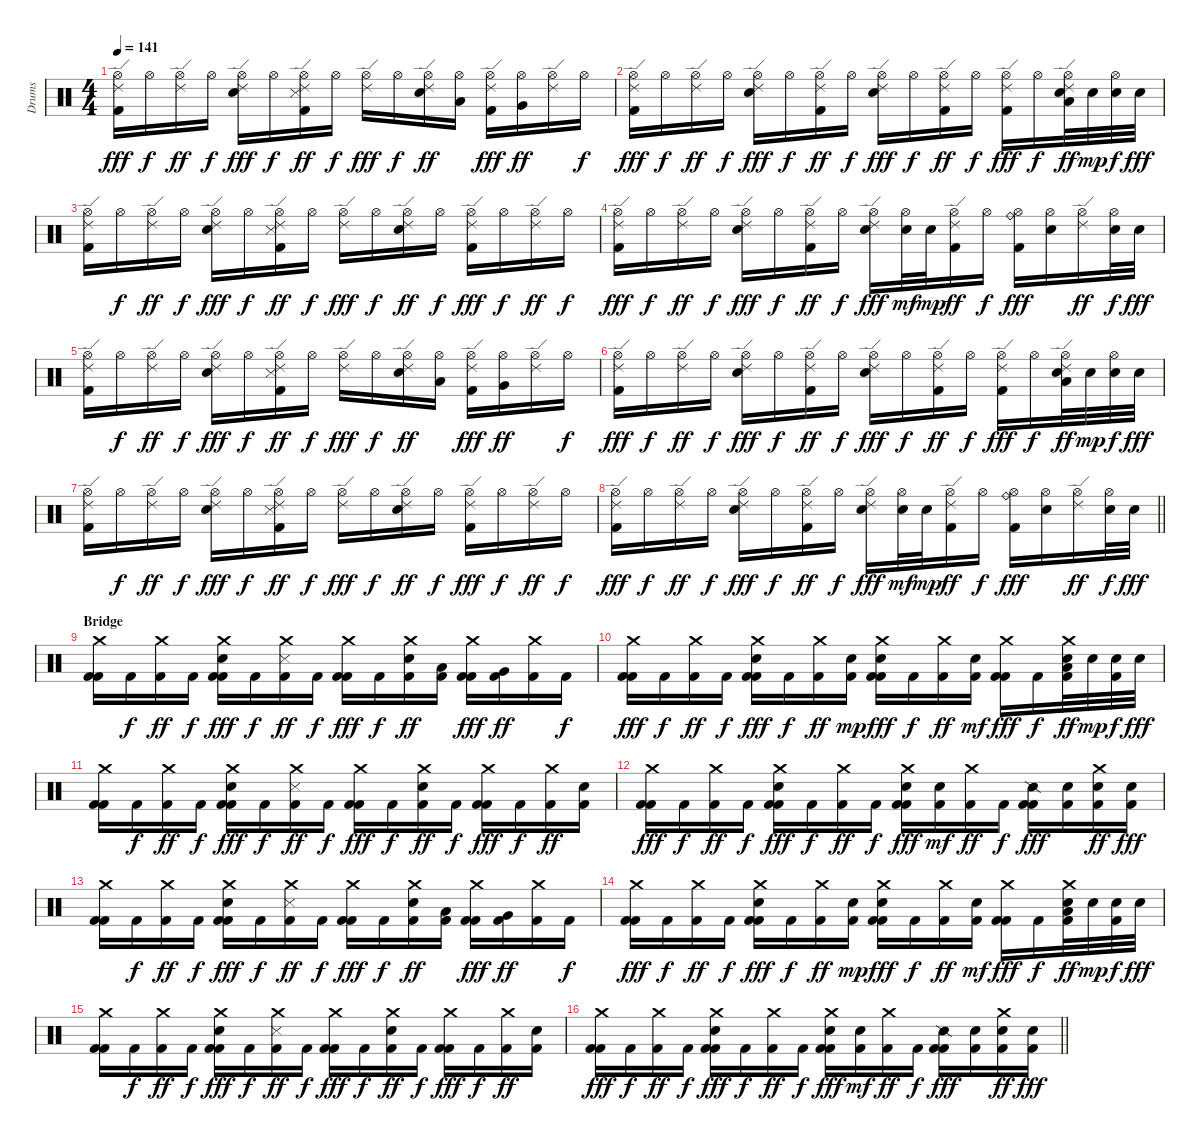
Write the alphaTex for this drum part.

\track ("Drums" "Drums") {instrument percussion}
\staff {score}
\articulation defaults
\ts (4 4)
\tempo 141
\clef neutral
\ks c
("Kick (hit) 2" "Hi-Hat (open)" "Ride (edge) 2").16{dy fff} "Hi-Hat (open)".16{dy f} ("Hi-Hat (open)" "Ride (edge) 2").16{dy ff} "Hi-Hat (open)".16{dy f} ("Snare (hit) 2" "Hi-Hat (open)" "Ride (edge) 2").16{dy fff} "Hi-Hat (open)".16{dy f} ("Kick (hit) 2" "Snare (side stick) 3" "Hi-Hat (open)" "Ride (edge) 2").16{dy ff} "Hi-Hat (open)".16{dy f} ("Hi-Hat (open)" "Ride (edge) 2").16{dy fff} "Hi-Hat (open)".16{dy f} ("Snare (hit) 2" "Hi-Hat (open)" "Ride (edge) 2").16{dy ff} ("Hi-Hat (open)" "Low Floor Tom (hit)").16 ("Kick (hit) 2" "Hi-Hat (open)" "Ride (edge) 2").16{dy fff} ("Hi-Hat (open)" "Very Low Tom (hit)").16{dy ff} ("Hi-Hat (open)" "Ride (edge) 2").16 "Hi-Hat (open)".16{dy f} |
("Kick (hit) 2" "Hi-Hat (open)" "Ride (edge) 2").16{dy fff} "Hi-Hat (open)".16{dy f} ("Hi-Hat (open)" "Ride (edge) 2").16{dy ff} "Hi-Hat (open)".16{dy f} ("Snare (hit) 2" "Hi-Hat (open)" "Ride (edge) 2").16{dy fff} "Hi-Hat (open)".16{dy f} ("Kick (hit) 2" "Hi-Hat (open)" "Ride (edge) 2").16{dy ff} "Hi-Hat (open)".16{dy f} ("Snare (hit) 2" "Hi-Hat (open)" "Ride (edge) 2").16{dy fff} "Hi-Hat (open)".16{dy f} ("Kick (hit) 2" "Hi-Hat (open)" "Ride (edge) 2").16{dy ff} "Hi-Hat (open)".16{dy f} ("Kick (hit) 2" "Hi-Hat (open)" "Ride (edge) 2").16{dy fff} "Hi-Hat (open)".16{dy f} ("Snare (hit) 2" "Hi-Hat (open)" "Ride (edge) 2" "Low Tom (hit)").32{dy ff} "Snare (hit) 2".32{dy mp} ("Snare (hit) 2" "Hi-Hat (open)").32{dy f} "Snare (hit) 2".32{dy fff} |
("Kick (hit) 2" "Hi-Hat (open)" "Ride (edge) 2").16 "Hi-Hat (open)".16{dy f} ("Hi-Hat (open)" "Ride (edge) 2").16{dy ff} "Hi-Hat (open)".16{dy f} ("Snare (hit) 2" "Hi-Hat (open)" "Ride (edge) 2").16{dy fff} "Hi-Hat (open)".16{dy f} ("Kick (hit) 2" "Snare (side stick) 3" "Hi-Hat (open)" "Ride (edge) 2").16{dy ff} "Hi-Hat (open)".16{dy f} ("Hi-Hat (open)" "Ride (edge) 2").16{dy fff} "Hi-Hat (open)".16{dy f} ("Snare (hit) 2" "Hi-Hat (open)" "Ride (edge) 2").16{dy ff} "Hi-Hat (open)".16{dy f} ("Kick (hit) 2" "Hi-Hat (open)" "Ride (edge) 2").16{dy fff} "Hi-Hat (open)".16{dy f} ("Hi-Hat (open)" "Ride (edge) 2").16{dy ff} "Hi-Hat (open)".16{dy f} |
("Kick (hit) 2" "Hi-Hat (open)" "Ride (edge) 2").16{dy fff} "Hi-Hat (open)".16{dy f} ("Hi-Hat (open)" "Ride (edge) 2").16{dy ff} "Hi-Hat (open)".16{dy f} ("Snare (hit) 2" "Hi-Hat (open)" "Ride (edge) 2").16{dy fff} "Hi-Hat (open)".16{dy f} ("Kick (hit) 2" "Hi-Hat (open)" "Ride (edge) 2").16{dy ff} "Hi-Hat (open)".16{dy f} ("Snare (hit) 2" "Hi-Hat (open)" "Ride (edge) 2").16{dy fff} ("Snare (hit) 2" "Hi-Hat (open)").32{dy mf} "Snare (hit) 2".32{dy mp} ("Kick (hit) 2" "Hi-Hat (open)" "Ride (edge) 2").16{dy ff} "Hi-Hat (open)".16{dy f} ("Kick (hit) 2" "Hi-Hat (open)" "Ride (bell)").16{dy fff} ("Snare (hit) 2" "Hi-Hat (open)").16 ("Hi-Hat (open)" "Ride (edge) 2").16{dy ff} ("Snare (hit) 2" "Hi-Hat (open)").32{dy f} "Snare (hit) 2".32{dy fff} |
("Kick (hit) 2" "Hi-Hat (open)" "Ride (edge) 2").16 "Hi-Hat (open)".16{dy f} ("Hi-Hat (open)" "Ride (edge) 2").16{dy ff} "Hi-Hat (open)".16{dy f} ("Snare (hit) 2" "Hi-Hat (open)" "Ride (edge) 2").16{dy fff} "Hi-Hat (open)".16{dy f} ("Kick (hit) 2" "Snare (side stick) 3" "Hi-Hat (open)" "Ride (edge) 2").16{dy ff} "Hi-Hat (open)".16{dy f} ("Hi-Hat (open)" "Ride (edge) 2").16{dy fff} "Hi-Hat (open)".16{dy f} ("Snare (hit) 2" "Hi-Hat (open)" "Ride (edge) 2").16{dy ff} ("Hi-Hat (open)" "Low Floor Tom (hit)").16 ("Kick (hit) 2" "Hi-Hat (open)" "Ride (edge) 2").16{dy fff} ("Hi-Hat (open)" "Very Low Tom (hit)").16{dy ff} ("Hi-Hat (open)" "Ride (edge) 2").16 "Hi-Hat (open)".16{dy f} |
("Kick (hit) 2" "Hi-Hat (open)" "Ride (edge) 2").16{dy fff} "Hi-Hat (open)".16{dy f} ("Hi-Hat (open)" "Ride (edge) 2").16{dy ff} "Hi-Hat (open)".16{dy f} ("Snare (hit) 2" "Hi-Hat (open)" "Ride (edge) 2").16{dy fff} "Hi-Hat (open)".16{dy f} ("Kick (hit) 2" "Hi-Hat (open)" "Ride (edge) 2").16{dy ff} "Hi-Hat (open)".16{dy f} ("Snare (hit) 2" "Hi-Hat (open)" "Ride (edge) 2").16{dy fff} "Hi-Hat (open)".16{dy f} ("Kick (hit) 2" "Hi-Hat (open)" "Ride (edge) 2").16{dy ff} "Hi-Hat (open)".16{dy f} ("Kick (hit) 2" "Hi-Hat (open)" "Ride (edge) 2").16{dy fff} "Hi-Hat (open)".16{dy f} ("Snare (hit) 2" "Hi-Hat (open)" "Ride (edge) 2" "Low Tom (hit)").32{dy ff} "Snare (hit) 2".32{dy mp} ("Snare (hit) 2" "Hi-Hat (open)").32{dy f} "Snare (hit) 2".32{dy fff} |
("Kick (hit) 2" "Hi-Hat (open)" "Ride (edge) 2").16 "Hi-Hat (open)".16{dy f} ("Hi-Hat (open)" "Ride (edge) 2").16{dy ff} "Hi-Hat (open)".16{dy f} ("Snare (hit) 2" "Hi-Hat (open)" "Ride (edge) 2").16{dy fff} "Hi-Hat (open)".16{dy f} ("Kick (hit) 2" "Snare (side stick) 3" "Hi-Hat (open)" "Ride (edge) 2").16{dy ff} "Hi-Hat (open)".16{dy f} ("Hi-Hat (open)" "Ride (edge) 2").16{dy fff} "Hi-Hat (open)".16{dy f} ("Snare (hit) 2" "Hi-Hat (open)" "Ride (edge) 2").16{dy ff} "Hi-Hat (open)".16{dy f} ("Kick (hit) 2" "Hi-Hat (open)" "Ride (edge) 2").16{dy fff} "Hi-Hat (open)".16{dy f} ("Hi-Hat (open)" "Ride (edge) 2").16{dy ff} "Hi-Hat (open)".16{dy f} |
\barLineRight lightlight
("Kick (hit) 2" "Hi-Hat (open)" "Ride (edge) 2").16{dy fff} "Hi-Hat (open)".16{dy f} ("Hi-Hat (open)" "Ride (edge) 2").16{dy ff} "Hi-Hat (open)".16{dy f} ("Snare (hit) 2" "Hi-Hat (open)" "Ride (edge) 2").16{dy fff} "Hi-Hat (open)".16{dy f} ("Kick (hit) 2" "Hi-Hat (open)" "Ride (edge) 2").16{dy ff} "Hi-Hat (open)".16{dy f} ("Snare (hit) 2" "Hi-Hat (open)" "Ride (edge) 2").16{dy fff} ("Snare (hit) 2" "Hi-Hat (open)").32{dy mf} "Snare (hit) 2".32{dy mp} ("Kick (hit) 2" "Hi-Hat (open)" "Ride (edge) 2").16{dy ff} "Hi-Hat (open)".16{dy f} ("Kick (hit) 2" "Hi-Hat (open)" "Ride (bell)").16{dy fff} ("Snare (hit) 2" "Hi-Hat (open)").16 ("Hi-Hat (open)" "Ride (edge) 2").16{dy ff} ("Snare (hit) 2" "Hi-Hat (open)").32{dy f} "Snare (hit) 2".32{dy fff} |
\section ("" "Bridge")
("Kick (hit) 2" "Kick (hit) 2" "Crash medium (hit)").16 "Kick (hit) 2".16{dy f} ("Kick (hit) 2" "Crash medium (hit)").16{dy ff} "Kick (hit) 2".16{dy f} ("Kick (hit) 2" "Snare (hit) 2" "Kick (hit) 2" "Crash medium (hit)").16{dy fff} "Kick (hit) 2".16{dy f} ("Snare (side stick) 3" "Kick (hit) 2" "Crash medium (hit)").16{dy ff} "Kick (hit) 2".16{dy f} ("Kick (hit) 2" "Kick (hit) 2" "Crash medium (hit)").16{dy fff} "Kick (hit) 2".16{dy f} ("Snare (hit) 2" "Kick (hit) 2" "Crash medium (hit)").16{dy ff} ("Kick (hit) 2" "Low Floor Tom (hit)").16 ("Kick (hit) 2" "Kick (hit) 2" "Crash medium (hit)").16{dy fff} ("Kick (hit) 2" "Very Low Tom (hit)").16{dy ff} ("Kick (hit) 2" "Crash medium (hit)").16 "Kick (hit) 2".16{dy f} |
("Kick (hit) 2" "Kick (hit) 2" "Crash medium (hit)").16{dy fff} "Kick (hit) 2".16{dy f} ("Kick (hit) 2" "Crash medium (hit)").16{dy ff} "Kick (hit) 2".16{dy f} ("Kick (hit) 2" "Snare (hit) 2" "Kick (hit) 2" "Crash medium (hit)").16{dy fff} "Kick (hit) 2".16{dy f} ("Kick (hit) 2" "Crash medium (hit)").16{dy ff} ("Snare (hit) 2" "Kick (hit) 2").16{dy mp} ("Kick (hit) 2" "Snare (hit) 2" "Kick (hit) 2" "Crash medium (hit)").16{dy fff} "Kick (hit) 2".16{dy f} ("Kick (hit) 2" "Crash medium (hit)").16{dy ff} ("Snare (hit) 2" "Kick (hit) 2").16{dy mf} ("Kick (hit) 2" "Kick (hit) 2" "Crash medium (hit)").16{dy fff} "Kick (hit) 2".16{dy f} ("Snare (hit) 2" "Kick (hit) 2" "Low Tom (hit)" "Crash medium (hit)").32{dy ff} "Snare (hit) 2".32{dy mp} ("Snare (hit) 2" "Kick (hit) 2").32{dy f} "Snare (hit) 2".32{dy fff} |
("Kick (hit) 2" "Kick (hit) 2" "Crash medium (hit)").16 "Kick (hit) 2".16{dy f} ("Kick (hit) 2" "Crash medium (hit)").16{dy ff} "Kick (hit) 2".16{dy f} ("Kick (hit) 2" "Snare (hit) 2" "Kick (hit) 2" "Crash medium (hit)").16{dy fff} "Kick (hit) 2".16{dy f} ("Snare (side stick) 3" "Kick (hit) 2" "Crash medium (hit)").16{dy ff} "Kick (hit) 2".16{dy f} ("Kick (hit) 2" "Kick (hit) 2" "Crash medium (hit)").16{dy fff} "Kick (hit) 2".16{dy f} ("Snare (hit) 2" "Kick (hit) 2" "Crash medium (hit)").16{dy ff} "Kick (hit) 2".16{dy f} ("Kick (hit) 2" "Kick (hit) 2" "Crash medium (hit)").16{dy fff} "Kick (hit) 2".16{dy f} ("Kick (hit) 2" "Crash medium (hit)").16{dy ff} ("Snare (hit) 2" "Kick (hit) 2").16 |
("Kick (hit) 2" "Kick (hit) 2" "Crash medium (hit)").16{dy fff} "Kick (hit) 2".16{dy f} ("Kick (hit) 2" "Crash medium (hit)").16{dy ff} "Kick (hit) 2".16{dy f} ("Kick (hit) 2" "Snare (hit) 2" "Kick (hit) 2" "Crash medium (hit)").16{dy fff} "Kick (hit) 2".16{dy f} ("Kick (hit) 2" "Crash medium (hit)").16{dy ff} "Kick (hit) 2".16{dy f} ("Kick (hit) 2" "Snare (hit) 2" "Kick (hit) 2" "Crash medium (hit)").16{dy fff} ("Snare (hit) 2" "Kick (hit) 2").16{dy mf} ("Kick (hit) 2" "Crash medium (hit)").16{dy ff} "Kick (hit) 2".16{dy f} ("Kick (hit) 2" "Kick (hit) 2" "Snare (side stick) 2").16{dy fff} ("Snare (hit) 2" "Kick (hit) 2").16 ("Snare (hit) 2" "Kick (hit) 2" "Crash medium (hit)").16{dy ff} ("Snare (hit) 2" "Kick (hit) 2").16{dy fff} |
("Kick (hit) 2" "Kick (hit) 2" "Crash medium (hit)").16 "Kick (hit) 2".16{dy f} ("Kick (hit) 2" "Crash medium (hit)").16{dy ff} "Kick (hit) 2".16{dy f} ("Kick (hit) 2" "Snare (hit) 2" "Kick (hit) 2" "Crash medium (hit)").16{dy fff} "Kick (hit) 2".16{dy f} ("Snare (side stick) 3" "Kick (hit) 2" "Crash medium (hit)").16{dy ff} "Kick (hit) 2".16{dy f} ("Kick (hit) 2" "Kick (hit) 2" "Crash medium (hit)").16{dy fff} "Kick (hit) 2".16{dy f} ("Snare (hit) 2" "Kick (hit) 2" "Crash medium (hit)").16{dy ff} ("Kick (hit) 2" "Low Floor Tom (hit)").16 ("Kick (hit) 2" "Kick (hit) 2" "Crash medium (hit)").16{dy fff} ("Kick (hit) 2" "Very Low Tom (hit)").16{dy ff} ("Kick (hit) 2" "Crash medium (hit)").16 "Kick (hit) 2".16{dy f} |
("Kick (hit) 2" "Kick (hit) 2" "Crash medium (hit)").16{dy fff} "Kick (hit) 2".16{dy f} ("Kick (hit) 2" "Crash medium (hit)").16{dy ff} "Kick (hit) 2".16{dy f} ("Kick (hit) 2" "Snare (hit) 2" "Kick (hit) 2" "Crash medium (hit)").16{dy fff} "Kick (hit) 2".16{dy f} ("Kick (hit) 2" "Crash medium (hit)").16{dy ff} ("Snare (hit) 2" "Kick (hit) 2").16{dy mp} ("Kick (hit) 2" "Snare (hit) 2" "Kick (hit) 2" "Crash medium (hit)").16{dy fff} "Kick (hit) 2".16{dy f} ("Kick (hit) 2" "Crash medium (hit)").16{dy ff} ("Snare (hit) 2" "Kick (hit) 2").16{dy mf} ("Kick (hit) 2" "Kick (hit) 2" "Crash medium (hit)").16{dy fff} "Kick (hit) 2".16{dy f} ("Snare (hit) 2" "Kick (hit) 2" "Low Tom (hit)" "Crash medium (hit)").32{dy ff} "Snare (hit) 2".32{dy mp} ("Snare (hit) 2" "Kick (hit) 2").32{dy f} "Snare (hit) 2".32{dy fff} |
("Kick (hit) 2" "Kick (hit) 2" "Crash medium (hit)").16 "Kick (hit) 2".16{dy f} ("Kick (hit) 2" "Crash medium (hit)").16{dy ff} "Kick (hit) 2".16{dy f} ("Kick (hit) 2" "Snare (hit) 2" "Kick (hit) 2" "Crash medium (hit)").16{dy fff} "Kick (hit) 2".16{dy f} ("Snare (side stick) 3" "Kick (hit) 2" "Crash medium (hit)").16{dy ff} "Kick (hit) 2".16{dy f} ("Kick (hit) 2" "Kick (hit) 2" "Crash medium (hit)").16{dy fff} "Kick (hit) 2".16{dy f} ("Snare (hit) 2" "Kick (hit) 2" "Crash medium (hit)").16{dy ff} "Kick (hit) 2".16{dy f} ("Kick (hit) 2" "Kick (hit) 2" "Crash medium (hit)").16{dy fff} "Kick (hit) 2".16{dy f} ("Kick (hit) 2" "Crash medium (hit)").16{dy ff} ("Snare (hit) 2" "Kick (hit) 2").16 |
\barLineRight lightlight
("Kick (hit) 2" "Kick (hit) 2" "Crash medium (hit)").16{dy fff} "Kick (hit) 2".16{dy f} ("Kick (hit) 2" "Crash medium (hit)").16{dy ff} "Kick (hit) 2".16{dy f} ("Kick (hit) 2" "Snare (hit) 2" "Kick (hit) 2" "Crash medium (hit)").16{dy fff} "Kick (hit) 2".16{dy f} ("Kick (hit) 2" "Crash medium (hit)").16{dy ff} "Kick (hit) 2".16{dy f} ("Kick (hit) 2" "Snare (hit) 2" "Kick (hit) 2" "Crash medium (hit)").16{dy fff} ("Snare (hit) 2" "Kick (hit) 2").16{dy mf} ("Kick (hit) 2" "Crash medium (hit)").16{dy ff} "Kick (hit) 2".16{dy f} ("Kick (hit) 2" "Kick (hit) 2" "Snare (side stick) 2").16{dy fff} ("Snare (hit) 2" "Kick (hit) 2").16 ("Snare (hit) 2" "Kick (hit) 2" "Crash medium (hit)").16{dy ff} ("Snare (hit) 2" "Kick (hit) 2").16{dy fff}
